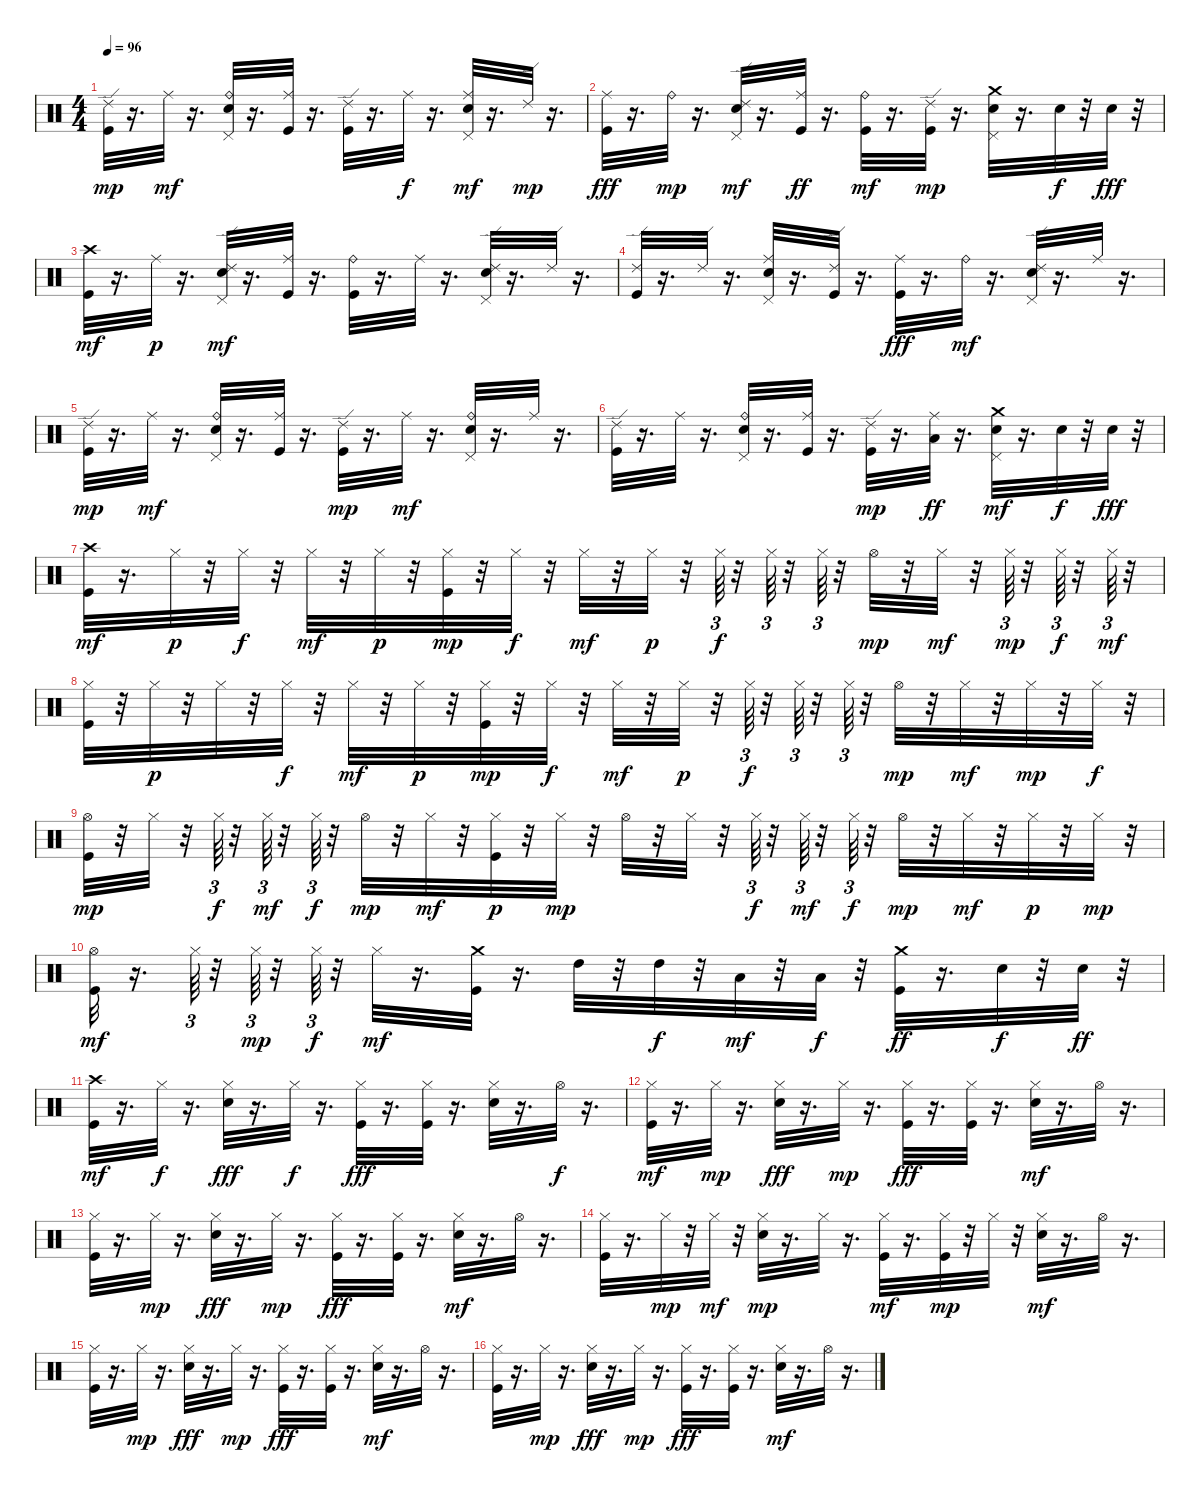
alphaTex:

\track "" {instrument percussion}
\staff {score}
\articulation defaults
\ts (4 4)
\tempo 96
\clef neutral
\ks c
("Kick (hit)" "Ride (edge) 2").32{dy mp} r.16{d} "Ride (middle)".32{dy mf} r.16{d} ("Electric Snare (hit)" "Ride (bell)" "Pedal Hi-Hat (hit)").32 r.16{d} ("Kick (hit)" "Ride (middle)").32 r.16{d} ("Kick (hit)" "Ride (edge) 2").32 r.16{d} "Ride (middle)".32{dy f} r.16{d} ("Electric Snare (hit)" "Ride (middle)" "Pedal Hi-Hat (hit)").32{dy mf} r.16{d} "Ride (edge) 2".32{dy mp} r.16{d} |
("Kick (hit)" "Ride (middle)").32{dy fff} r.16{d} "Ride (bell)".32{dy mp} r.16{d} ("Electric Snare (hit)" "Ride (edge) 2" "Pedal Hi-Hat (hit)").32{dy mf} r.16{d} ("Kick (hit)" "Ride (middle)").32{dy ff} r.16{d} ("Kick (hit)" "Ride (bell)").32{dy mf} r.16{d} ("Kick (hit)" "Ride (edge) 2").32{dy mp} r.16{d} ("Electric Snare (hit)" "Crash medium (hit)" "Pedal Hi-Hat (hit)").32 r.16{d} "Electric Snare (hit)".32{dy f} r.32 "Electric Snare (hit)".32{dy fff} r.32 |
("Kick (hit)" "Crash high (hit)").32{dy mf} r.16{d} "Ride (middle)".32{dy p} r.16{d} ("Electric Snare (hit)" "Ride (edge) 2" "Pedal Hi-Hat (hit)").32{dy mf} r.16{d} ("Kick (hit)" "Ride (middle)").32 r.16{d} ("Kick (hit)" "Ride (bell)").32 r.16{d} "Ride (middle)".32 r.16{d} ("Electric Snare (hit)" "Ride (edge) 2" "Pedal Hi-Hat (hit)").32 r.16{d} "Ride (edge) 2".32 r.16{d} |
("Kick (hit)" "Ride (edge) 2").32 r.16{d} "Ride (edge) 2".32 r.16{d} ("Electric Snare (hit)" "Ride (middle)" "Pedal Hi-Hat (hit)").32 r.16{d} ("Kick (hit)" "Ride (edge) 2").32 r.16{d} ("Kick (hit)" "Ride (middle)").32{dy fff} r.16{d} "Ride (bell)".32{dy mf} r.16{d} ("Electric Snare (hit)" "Ride (edge) 2" "Pedal Hi-Hat (hit)").32 r.16{d} "Ride (middle)".32 r.16{d} |
("Kick (hit)" "Ride (edge) 2").32{dy mp} r.16{d} "Ride (middle)".32{dy mf} r.16{d} ("Electric Snare (hit)" "Ride (bell)" "Pedal Hi-Hat (hit)").32 r.16{d} ("Kick (hit)" "Ride (middle)").32 r.16{d} ("Kick (hit)" "Ride (edge) 2").32{dy mp} r.16{d} "Ride (middle)".32{dy mf} r.16{d} ("Electric Snare (hit)" "Ride (bell)" "Pedal Hi-Hat (hit)").32 r.16{d} "Ride (middle)".32 r.16{d} |
("Kick (hit)" "Ride (edge) 2").32 r.16{d} "Ride (middle)".32 r.16{d} ("Electric Snare (hit)" "Ride (bell)" "Pedal Hi-Hat (hit)").32 r.16{d} ("Kick (hit)" "Ride (middle)").32 r.16{d} ("Kick (hit)" "Ride (edge) 2").32{dy mp} r.16{d} ("Low Floor Tom (hit)" "Ride (middle)").32{dy ff} r.16{d} ("Electric Snare (hit)" "Crash medium (hit)" "Pedal Hi-Hat (hit)").32{dy mf} r.16{d} "Electric Snare (hit)".32{dy f} r.32 "Electric Snare (hit)".32{dy fff} r.32 |
("Kick (hit)" "Crash high (hit)").32{dy mf} r.16{d} "Hi-Hat (closed)".32{dy p} r.32 "Hi-Hat (closed)".32{dy f} r.32 "Hi-Hat (closed)".32{dy mf} r.32 "Hi-Hat (closed)".32{dy p} r.32 ("Kick (hit)" "Hi-Hat (closed)").32{dy mp} r.32 "Hi-Hat (closed)".32{dy f} r.32 "Hi-Hat (closed)".32{dy mf} r.32 "Hi-Hat (closed)".32{dy p} r.32 "Hi-Hat (closed)".64{tu (3 2) dy f} r.32 "Hi-Hat (closed)".64{tu (3 2)} r.32 "Hi-Hat (closed)".64{tu (3 2)} r.32 "Hi-Hat (open)".32{dy mp} r.32 "Hi-Hat (closed)".32{dy mf} r.32 "Hi-Hat (closed)".64{tu (3 2) dy mp} r.32 "Hi-Hat (closed)".64{tu (3 2) dy f} r.32 "Hi-Hat (closed)".64{tu (3 2) dy mf} r.32 |
("Kick (hit)" "Hi-Hat (closed)").32 r.32 "Hi-Hat (closed)".32{dy p} r.32 "Hi-Hat (closed)".32 r.32 "Hi-Hat (closed)".32{dy f} r.32 "Hi-Hat (closed)".32{dy mf} r.32 "Hi-Hat (closed)".32{dy p} r.32 ("Kick (hit)" "Hi-Hat (closed)").32{dy mp} r.32 "Hi-Hat (closed)".32{dy f} r.32 "Hi-Hat (closed)".32{dy mf} r.32 "Hi-Hat (closed)".32{dy p} r.32 "Hi-Hat (closed)".64{tu (3 2) dy f} r.32 "Hi-Hat (closed)".64{tu (3 2)} r.32 "Hi-Hat (closed)".64{tu (3 2)} r.32 "Hi-Hat (open)".32{dy mp} r.32 "Hi-Hat (closed)".32{dy mf} r.32 "Hi-Hat (closed)".32{dy mp} r.32 "Hi-Hat (closed)".32{dy f} r.32 |
("Kick (hit)" "Hi-Hat (open)").32{dy mp} r.32 "Hi-Hat (closed)".32 r.32 "Hi-Hat (closed)".64{tu (3 2) dy f} r.32 "Hi-Hat (closed)".64{tu (3 2) dy mf} r.32 "Hi-Hat (closed)".64{tu (3 2) dy f} r.32 "Hi-Hat (open)".32{dy mp} r.32 "Hi-Hat (closed)".32{dy mf} r.32 ("Kick (hit)" "Hi-Hat (closed)").32{dy p} r.32 "Hi-Hat (closed)".32{dy mp} r.32 "Hi-Hat (open)".32 r.32 "Hi-Hat (closed)".32 r.32 "Hi-Hat (closed)".64{tu (3 2) dy f} r.32 "Hi-Hat (closed)".64{tu (3 2) dy mf} r.32 "Hi-Hat (closed)".64{tu (3 2) dy f} r.32 "Hi-Hat (open)".32{dy mp} r.32 "Hi-Hat (closed)".32{dy mf} r.32 "Hi-Hat (closed)".32{dy p} r.32 "Hi-Hat (closed)".32{dy mp} r.32 |
("Kick (hit)" "Hi-Hat (open)").32{dy mf} r.16{d} "Hi-Hat (closed)".64{tu (3 2)} r.32 "Hi-Hat (closed)".64{tu (3 2) dy mp} r.32 "Hi-Hat (closed)".64{tu (3 2) dy f} r.32 "Hi-Hat (closed)".32{dy mf} r.16{d} ("Kick (hit)" "Crash medium (hit)").32 r.16{d} "High Tom (hit)".32 r.32 "High Tom (hit)".32{dy f} r.32 "Low Tom (hit)".32{dy mf} r.32 "Low Floor Tom (hit)".32{dy f} r.32 ("Crash medium (hit)" "Kick (hit)").32{dy ff} r.16{d} "Electric Snare (hit)".32{dy f} r.32 "Electric Snare (hit)".32{dy ff} r.32 |
("Kick (hit)" "Crash high (hit)").32{dy mf} r.16{d} "Hi-Hat (closed)".32{dy f} r.16{d} ("Electric Snare (hit)" "Hi-Hat (closed)").32{dy fff} r.16{d} "Hi-Hat (closed)".32{dy f} r.16{d} ("Kick (hit)" "Hi-Hat (closed)").32{dy fff} r.16{d} ("Kick (hit)" "Hi-Hat (closed)").32 r.16{d} ("Electric Snare (hit)" "Hi-Hat (closed)").32 r.16{d} "Hi-Hat (open)".32{dy f} r.16{d} |
("Kick (hit)" "Hi-Hat (closed)").32{dy mf} r.16{d} "Hi-Hat (closed)".32{dy mp} r.16{d} ("Electric Snare (hit)" "Hi-Hat (closed)").32{dy fff} r.16{d} "Hi-Hat (closed)".32{dy mp} r.16{d} ("Kick (hit)" "Hi-Hat (closed)").32{dy fff} r.16{d} ("Kick (hit)" "Hi-Hat (closed)").32 r.16{d} ("Electric Snare (hit)" "Hi-Hat (closed)").32{dy mf} r.16{d} "Hi-Hat (open)".32 r.16{d} |
("Kick (hit)" "Hi-Hat (closed)").32 r.16{d} "Hi-Hat (closed)".32{dy mp} r.16{d} ("Electric Snare (hit)" "Hi-Hat (closed)").32{dy fff} r.16{d} "Hi-Hat (closed)".32{dy mp} r.16{d} ("Kick (hit)" "Hi-Hat (closed)").32{dy fff} r.16{d} ("Kick (hit)" "Hi-Hat (closed)").32 r.16{d} ("Electric Snare (hit)" "Hi-Hat (closed)").32{dy mf} r.16{d} "Hi-Hat (open)".32 r.16{d} |
("Kick (hit)" "Hi-Hat (closed)").32 r.16{d} "Hi-Hat (closed)".32{dy mp} r.32 "Hi-Hat (closed)".32{dy mf} r.32 ("Electric Snare (hit)" "Hi-Hat (closed)").32{dy mp} r.16{d} "Hi-Hat (closed)".32 r.16{d} ("Kick (hit)" "Hi-Hat (closed)").32{dy mf} r.16{d} ("Kick (hit)" "Hi-Hat (closed)").32{dy mp} r.32 "Hi-Hat (closed)".32 r.32 ("Electric Snare (hit)" "Hi-Hat (closed)").32{dy mf} r.16{d} "Hi-Hat (open)".32 r.16{d} |
("Kick (hit)" "Hi-Hat (closed)").32 r.16{d} "Hi-Hat (closed)".32{dy mp} r.16{d} ("Electric Snare (hit)" "Hi-Hat (closed)").32{dy fff} r.16{d} "Hi-Hat (closed)".32{dy mp} r.16{d} ("Kick (hit)" "Hi-Hat (closed)").32{dy fff} r.16{d} ("Kick (hit)" "Hi-Hat (closed)").32 r.16{d} ("Electric Snare (hit)" "Hi-Hat (closed)").32{dy mf} r.16{d} "Hi-Hat (open)".32 r.16{d} |
("Kick (hit)" "Hi-Hat (closed)").32 r.16{d} "Hi-Hat (closed)".32{dy mp} r.16{d} ("Electric Snare (hit)" "Hi-Hat (closed)").32{dy fff} r.16{d} "Hi-Hat (closed)".32{dy mp} r.16{d} ("Kick (hit)" "Hi-Hat (closed)").32{dy fff} r.16{d} ("Kick (hit)" "Hi-Hat (closed)").32 r.16{d} ("Electric Snare (hit)" "Hi-Hat (closed)").32{dy mf} r.16{d} "Hi-Hat (open)".32 r.16{d}
